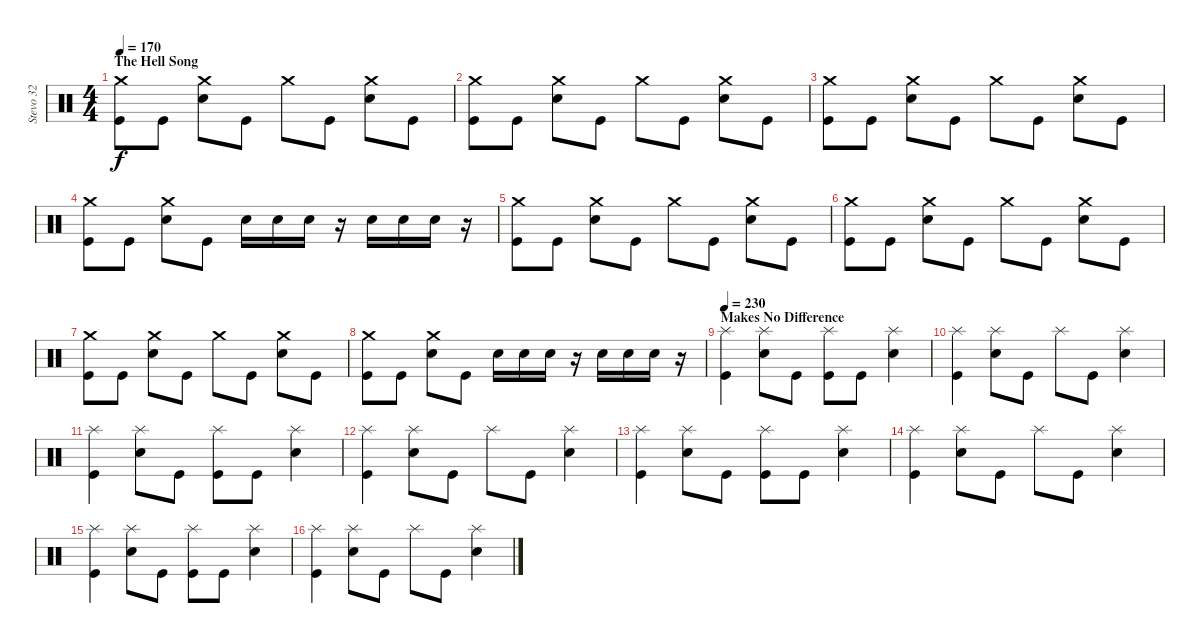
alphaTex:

\track ("Stevo 32" "Stevo 32") {instrument percussion}
\staff {score}
\articulation defaults
\ts (4 4)
\section ("" "The Hell Song")
\tempo 170
\clef neutral
\ks c
("Crash medium (hit)" "Kick (hit)").8{dy f} "Kick (hit)".8 ("Crash medium (hit)" "Electric Snare (hit)").8 "Kick (hit)".8 "Crash medium (hit)".8 "Kick (hit)".8 ("Crash medium (hit)" "Electric Snare (hit)").8 "Kick (hit)".8 |
("Crash medium (hit)" "Kick (hit)").8 "Kick (hit)".8 ("Crash medium (hit)" "Electric Snare (hit)").8 "Kick (hit)".8 "Crash medium (hit)".8 "Kick (hit)".8 ("Crash medium (hit)" "Electric Snare (hit)").8 "Kick (hit)".8 |
("Crash medium (hit)" "Kick (hit)").8 "Kick (hit)".8 ("Crash medium (hit)" "Electric Snare (hit)").8 "Kick (hit)".8 "Crash medium (hit)".8 "Kick (hit)".8 ("Crash medium (hit)" "Electric Snare (hit)").8 "Kick (hit)".8 |
("Crash medium (hit)" "Kick (hit)").8 "Kick (hit)".8 ("Crash medium (hit)" "Electric Snare (hit)").8 "Kick (hit)".8 "Electric Snare (hit)".16 "Electric Snare (hit)".16 "Electric Snare (hit)".16 r.16 "Electric Snare (hit)".16 "Electric Snare (hit)".16 "Electric Snare (hit)".16 r.16 |
("Crash medium (hit)" "Kick (hit)").8 "Kick (hit)".8 ("Crash medium (hit)" "Electric Snare (hit)").8 "Kick (hit)".8 "Crash medium (hit)".8 "Kick (hit)".8 ("Crash medium (hit)" "Electric Snare (hit)").8 "Kick (hit)".8 |
("Crash medium (hit)" "Kick (hit)").8 "Kick (hit)".8 ("Crash medium (hit)" "Electric Snare (hit)").8 "Kick (hit)".8 "Crash medium (hit)".8 "Kick (hit)".8 ("Crash medium (hit)" "Electric Snare (hit)").8 "Kick (hit)".8 |
("Crash medium (hit)" "Kick (hit)").8 "Kick (hit)".8 ("Crash medium (hit)" "Electric Snare (hit)").8 "Kick (hit)".8 "Crash medium (hit)".8 "Kick (hit)".8 ("Crash medium (hit)" "Electric Snare (hit)").8 "Kick (hit)".8 |
("Crash medium (hit)" "Kick (hit)").8 "Kick (hit)".8 ("Crash medium (hit)" "Electric Snare (hit)").8 "Kick (hit)".8 "Electric Snare (hit)".16 "Electric Snare (hit)".16 "Electric Snare (hit)".16 r.16 "Electric Snare (hit)".16 "Electric Snare (hit)".16 "Electric Snare (hit)".16 r.16 |
\section ("" "Makes No Difference")
\tempo 230
("Splash (hit)" "Kick (hit)").4 ("Splash (hit)" "Electric Snare (hit)").8 "Kick (hit)".8 ("Splash (hit)" "Kick (hit)").8 "Kick (hit)".8 ("Splash (hit)" "Electric Snare (hit)").4 |
("Splash (hit)" "Kick (hit)").4 ("Splash (hit)" "Electric Snare (hit)").8 "Kick (hit)".8 "Splash (hit)".8 "Kick (hit)".8 ("Splash (hit)" "Electric Snare (hit)").4 |
("Splash (hit)" "Kick (hit)").4 ("Splash (hit)" "Electric Snare (hit)").8 "Kick (hit)".8 ("Splash (hit)" "Kick (hit)").8 "Kick (hit)".8 ("Splash (hit)" "Electric Snare (hit)").4 |
("Splash (hit)" "Kick (hit)").4 ("Splash (hit)" "Electric Snare (hit)").8 "Kick (hit)".8 "Splash (hit)".8 "Kick (hit)".8 ("Splash (hit)" "Electric Snare (hit)").4 |
("Splash (hit)" "Kick (hit)").4 ("Splash (hit)" "Electric Snare (hit)").8 "Kick (hit)".8 ("Splash (hit)" "Kick (hit)").8 "Kick (hit)".8 ("Splash (hit)" "Electric Snare (hit)").4 |
("Splash (hit)" "Kick (hit)").4 ("Splash (hit)" "Electric Snare (hit)").8 "Kick (hit)".8 "Splash (hit)".8 "Kick (hit)".8 ("Splash (hit)" "Electric Snare (hit)").4 |
("Splash (hit)" "Kick (hit)").4 ("Splash (hit)" "Electric Snare (hit)").8 "Kick (hit)".8 ("Splash (hit)" "Kick (hit)").8 "Kick (hit)".8 ("Splash (hit)" "Electric Snare (hit)").4 |
("Splash (hit)" "Kick (hit)").4 ("Splash (hit)" "Electric Snare (hit)").8 "Kick (hit)".8 "Splash (hit)".8 "Kick (hit)".8 ("Splash (hit)" "Electric Snare (hit)").4
